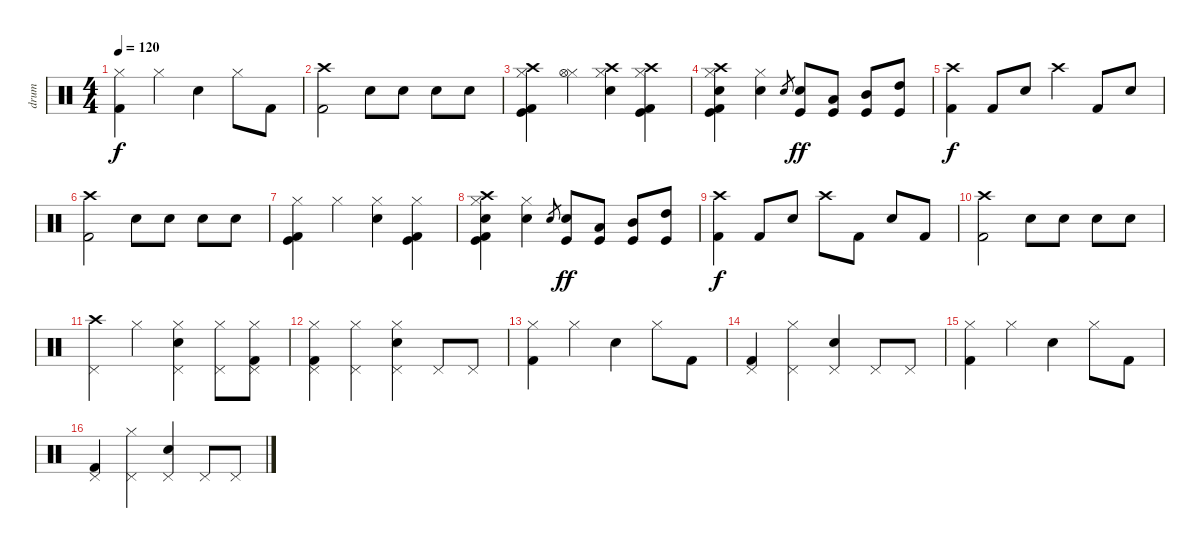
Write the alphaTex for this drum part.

\track ("drum" "drum") {instrument percussion}
\staff {score}
\articulation defaults
\ts (4 4)
\tempo 120
\clef neutral
\ks c
("Hi-Hat (closed)" "Kick (hit) 2").4{dy f} "Hi-Hat (closed)".4 "Snare (hit) 2".4 "Hi-Hat (closed)".8 "Kick (hit) 2".8 |
("Crash high (hit)" "Kick (hit) 2").2 "Electric Snare (hit)".8 "Electric Snare (hit)".8 "Electric Snare (hit)".8 "Electric Snare (hit)".8 |
("Hi-Hat (closed)" "Crash high (hit)" "Kick (hit) 2" "Kick (hit)").4 ("Hi-Hat (closed)" "Hi-Hat (open)").4 ("Hi-Hat (closed)" "Crash high (hit)" "Electric Snare (hit)").4 ("Hi-Hat (closed)" "Crash high (hit)" "Kick (hit) 2" "Kick (hit)").4 |
("Hi-Hat (closed)" "Crash high (hit)" "Electric Snare (hit)" "Kick (hit) 2" "Kick (hit)").4 ("Hi-Hat (closed)" "Electric Snare (hit)").4 "Electric Snare (hit)".8{gr} ("Electric Snare (hit)" "Kick (hit)").8{dy ff} ("Low Tom (hit)" "Kick (hit)").8 ("Mid Tom (hit)" "Kick (hit)").8 ("High Tom (hit)" "Kick (hit)").8 |
("Crash high (hit)" "Kick (hit) 2").4{dy f} "Kick (hit) 2".8 "Snare (hit) 2".8 "Crash high (hit)".4 "Kick (hit) 2".8 "Snare (hit) 2".8 |
("Crash high (hit)" "Kick (hit) 2").2 "Electric Snare (hit)".8 "Electric Snare (hit)".8 "Electric Snare (hit)".8 "Electric Snare (hit)".8 |
("Hi-Hat (closed)" "Kick (hit) 2" "Kick (hit)").4 "Hi-Hat (closed)".4 ("Hi-Hat (closed)" "Electric Snare (hit)").4 ("Hi-Hat (closed)" "Kick (hit) 2" "Kick (hit)").4 |
("Hi-Hat (closed)" "Crash high (hit)" "Electric Snare (hit)" "Kick (hit) 2" "Kick (hit)").4 ("Hi-Hat (closed)" "Electric Snare (hit)").4 "Electric Snare (hit)".8{gr} ("Electric Snare (hit)" "Kick (hit)").8{dy ff} ("Low Tom (hit)" "Kick (hit)").8 ("Mid Tom (hit)" "Kick (hit)").8 ("High Tom (hit)" "Kick (hit)").8 |
("Crash high (hit)" "Kick (hit) 2").4{dy f} "Kick (hit) 2".8 "Snare (hit) 2".8 "Crash high (hit)".8 "Kick (hit) 2".8 "Snare (hit) 2".8 "Kick (hit) 2".8 |
("Crash high (hit)" "Kick (hit) 2").2 "Electric Snare (hit)".8 "Electric Snare (hit)".8 "Electric Snare (hit)".8 "Electric Snare (hit)".8 |
("Crash high (hit)" "Pedal Hi-Hat (hit)").4 "Hi-Hat (closed)".4 ("Snare (hit) 2" "Pedal Hi-Hat (hit)" "Hi-Hat (closed)").4 ("Hi-Hat (closed)" "Pedal Hi-Hat (hit)").8 ("Kick (hit) 2" "Pedal Hi-Hat (hit)" "Hi-Hat (closed)").8 |
("Kick (hit) 2" "Pedal Hi-Hat (hit)" "Hi-Hat (closed)").4 ("Hi-Hat (closed)" "Pedal Hi-Hat (hit)").4 ("Snare (hit) 2" "Pedal Hi-Hat (hit)" "Hi-Hat (closed)").4 "Pedal Hi-Hat (hit)".8 "Pedal Hi-Hat (hit)".8 |
("Hi-Hat (closed)" "Kick (hit) 2").4 "Hi-Hat (closed)".4 "Snare (hit) 2".4 "Hi-Hat (closed)".8 "Kick (hit) 2".8 |
("Kick (hit) 2" "Pedal Hi-Hat (hit)").4 ("Hi-Hat (closed)" "Pedal Hi-Hat (hit)").4 ("Snare (hit) 2" "Pedal Hi-Hat (hit)").4 "Pedal Hi-Hat (hit)".8 "Pedal Hi-Hat (hit)".8 |
("Hi-Hat (closed)" "Kick (hit) 2").4 "Hi-Hat (closed)".4 "Snare (hit) 2".4 "Hi-Hat (closed)".8 "Kick (hit) 2".8 |
("Kick (hit) 2" "Pedal Hi-Hat (hit)").4 ("Hi-Hat (closed)" "Pedal Hi-Hat (hit)").4 ("Snare (hit) 2" "Pedal Hi-Hat (hit)").4 "Pedal Hi-Hat (hit)".8 "Pedal Hi-Hat (hit)".8
